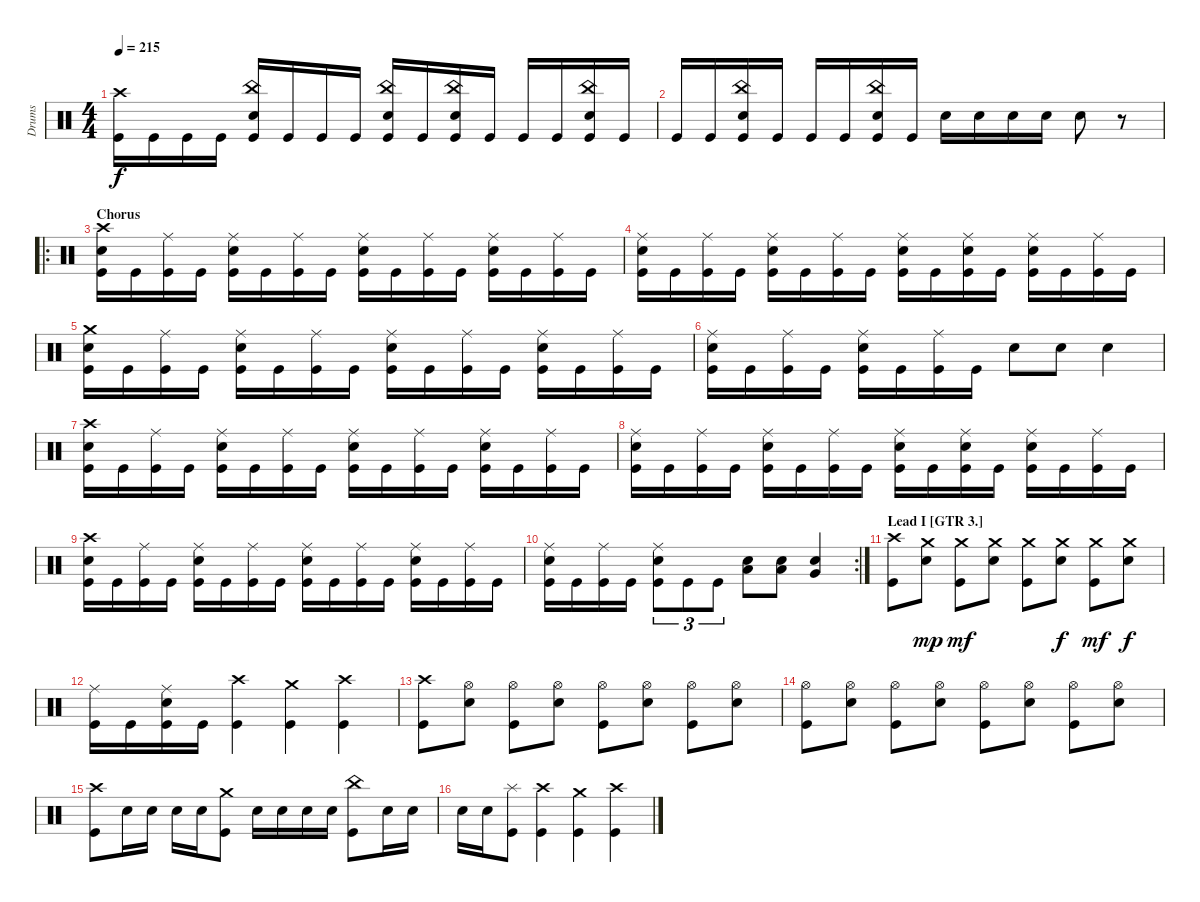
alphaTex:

\track ("Drums" "Drums") {instrument percussion}
\staff {score}
\articulation defaults
\ts (4 4)
\tempo 215
\clef neutral
\ks c
("Crash high (hit)" "Kick (hit)").16{dy f} "Kick (hit)".16 "Kick (hit)".16 "Kick (hit)".16 ("China (hit)" "Electric Snare (hit)" "Kick (hit)").16 "Kick (hit)".16 "Kick (hit)".16 "Kick (hit)".16 ("China (hit)" "Electric Snare (hit)" "Kick (hit)").16 "Kick (hit)".16 ("China (hit)" "Electric Snare (hit)" "Kick (hit)").16 "Kick (hit)".16 "Kick (hit)".16 "Kick (hit)".16 ("China (hit)" "Electric Snare (hit)" "Kick (hit)").16 "Kick (hit)".16 |
"Kick (hit)".16 "Kick (hit)".16 ("China (hit)" "Electric Snare (hit)" "Kick (hit)").16 "Kick (hit)".16 "Kick (hit)".16 "Kick (hit)".16 ("China (hit)" "Electric Snare (hit)" "Kick (hit)").16 "Kick (hit)".16 "Electric Snare (hit)".16 "Electric Snare (hit)".16 "Electric Snare (hit)".16 "Electric Snare (hit)".16 "Electric Snare (hit)".8 r.8 |
\ro
\section ("" "Chorus")
("Crash high (hit)" "Electric Snare (hit)" "Kick (hit)").16 "Kick (hit)".16 ("Ride (middle)" "Kick (hit)").16 "Kick (hit)".16 ("Ride (middle)" "Electric Snare (hit)" "Kick (hit)").16 "Kick (hit)".16 ("Ride (middle)" "Kick (hit)").16 "Kick (hit)".16 ("Ride (middle)" "Electric Snare (hit)" "Kick (hit)").16 "Kick (hit)".16 ("Ride (middle)" "Kick (hit)").16 "Kick (hit)".16 ("Ride (middle)" "Electric Snare (hit)" "Kick (hit)").16 "Kick (hit)".16 ("Ride (middle)" "Kick (hit)").16 "Kick (hit)".16 |
("Ride (middle)" "Electric Snare (hit)" "Kick (hit)").16 "Kick (hit)".16 ("Ride (middle)" "Kick (hit)").16 "Kick (hit)".16 ("Ride (middle)" "Electric Snare (hit)" "Kick (hit)").16 "Kick (hit)".16 ("Ride (middle)" "Kick (hit)").16 "Kick (hit)".16 ("Ride (middle)" "Electric Snare (hit)" "Kick (hit)").16 "Kick (hit)".16 ("Ride (middle)" "Electric Snare (hit)" "Kick (hit)").16 "Kick (hit)".16 ("Ride (middle)" "Electric Snare (hit)" "Kick (hit)").16 "Kick (hit)".16 ("Ride (middle)" "Kick (hit)").16 "Kick (hit)".16 |
("Crash medium (hit)" "Electric Snare (hit)" "Kick (hit)").16 "Kick (hit)".16 ("Ride (middle)" "Kick (hit)").16 "Kick (hit)".16 ("Ride (middle)" "Electric Snare (hit)" "Kick (hit)").16 "Kick (hit)".16 ("Ride (middle)" "Kick (hit)").16 "Kick (hit)".16 ("Ride (middle)" "Electric Snare (hit)" "Kick (hit)").16 "Kick (hit)".16 ("Ride (middle)" "Kick (hit)").16 "Kick (hit)".16 ("Ride (middle)" "Electric Snare (hit)" "Kick (hit)").16 "Kick (hit)".16 ("Ride (middle)" "Kick (hit)").16 "Kick (hit)".16 |
("Ride (middle)" "Electric Snare (hit)" "Kick (hit)").16 "Kick (hit)".16 ("Ride (middle)" "Kick (hit)").16 "Kick (hit)".16 ("Ride (middle)" "Electric Snare (hit)" "Kick (hit)").16 "Kick (hit)".16 ("Ride (middle)" "Kick (hit)").16 "Kick (hit)".16 "Electric Snare (hit)".8 "Electric Snare (hit)".8 "Electric Snare (hit)".4 |
("Crash high (hit)" "Electric Snare (hit)" "Kick (hit)").16 "Kick (hit)".16 ("Ride (middle)" "Kick (hit)").16 "Kick (hit)".16 ("Ride (middle)" "Electric Snare (hit)" "Kick (hit)").16 "Kick (hit)".16 ("Ride (middle)" "Kick (hit)").16 "Kick (hit)".16 ("Ride (middle)" "Electric Snare (hit)" "Kick (hit)").16 "Kick (hit)".16 ("Ride (middle)" "Kick (hit)").16 "Kick (hit)".16 ("Ride (middle)" "Electric Snare (hit)" "Kick (hit)").16 "Kick (hit)".16 ("Ride (middle)" "Kick (hit)").16 "Kick (hit)".16 |
("Ride (middle)" "Electric Snare (hit)" "Kick (hit)").16 "Kick (hit)".16 ("Ride (middle)" "Kick (hit)").16 "Kick (hit)".16 ("Ride (middle)" "Electric Snare (hit)" "Kick (hit)").16 "Kick (hit)".16 ("Ride (middle)" "Kick (hit)").16 "Kick (hit)".16 ("Ride (middle)" "Electric Snare (hit)" "Kick (hit)").16 "Kick (hit)".16 ("Ride (middle)" "Electric Snare (hit)" "Kick (hit)").16 "Kick (hit)".16 ("Ride (middle)" "Electric Snare (hit)" "Kick (hit)").16 "Kick (hit)".16 ("Ride (middle)" "Kick (hit)").16 "Kick (hit)".16 |
("Crash high (hit)" "Electric Snare (hit)" "Kick (hit)").16 "Kick (hit)".16 ("Ride (middle)" "Kick (hit)").16 "Kick (hit)".16 ("Ride (middle)" "Electric Snare (hit)" "Kick (hit)").16 "Kick (hit)".16 ("Ride (middle)" "Kick (hit)").16 "Kick (hit)".16 ("Ride (middle)" "Electric Snare (hit)" "Kick (hit)").16 "Kick (hit)".16 ("Ride (middle)" "Kick (hit)").16 "Kick (hit)".16 ("Ride (middle)" "Electric Snare (hit)" "Kick (hit)").16 "Kick (hit)".16 ("Ride (middle)" "Kick (hit)").16 "Kick (hit)".16 |
\rc 2
("Ride (middle)" "Electric Snare (hit)" "Kick (hit)").16 "Kick (hit)".16 ("Ride (middle)" "Kick (hit)").16 "Kick (hit)".16 ("Ride (middle)" "Electric Snare (hit)" "Kick (hit)").8{tu (3 2)} "Kick (hit)".8{tu (3 2)} "Kick (hit)".8{tu (3 2)} ("Low Tom (hit)" "Electric Snare (hit)").8 ("Low Tom (hit)" "Electric Snare (hit)").8 ("Very Low Tom (hit)" "Electric Snare (hit)").4 |
\section ("" "Lead I [GTR 3.]")
("Crash high (hit)" "Kick (hit)").8 ("Crash medium (hit)" "Electric Snare (hit)").8{dy mp} ("Crash medium (hit)" "Kick (hit)").8{dy mf} ("Crash medium (hit)" "Electric Snare (hit)").8 ("Crash medium (hit)" "Kick (hit)").8 ("Crash medium (hit)" "Electric Snare (hit)").8{dy f} ("Crash medium (hit)" "Kick (hit)").8{dy mf} ("Crash medium (hit)" "Electric Snare (hit)").8{dy f} |
("Ride (middle)" "Kick (hit)").16 "Kick (hit)".16 ("Ride (middle)" "Electric Snare (hit)" "Kick (hit)").16 "Kick (hit)".16 ("Crash high (hit)" "Kick (hit)").4 ("Crash medium (hit)" "Kick (hit)").4 ("Crash high (hit)" "Kick (hit)").4 |
("Crash high (hit)" "Kick (hit)").8 ("Hi-Hat (open)" "Electric Snare (hit)").8 ("Hi-Hat (open)" "Kick (hit)").8 ("Hi-Hat (open)" "Electric Snare (hit)").8 ("Hi-Hat (open)" "Kick (hit)").8 ("Hi-Hat (open)" "Electric Snare (hit)").8 ("Hi-Hat (open)" "Kick (hit)").8 ("Hi-Hat (open)" "Electric Snare (hit)").8 |
("Hi-Hat (open)" "Kick (hit)").8 ("Hi-Hat (open)" "Electric Snare (hit)").8 ("Hi-Hat (open)" "Kick (hit)").8 ("Hi-Hat (open)" "Electric Snare (hit)").8 ("Hi-Hat (open)" "Kick (hit)").8 ("Hi-Hat (open)" "Electric Snare (hit)").8 ("Hi-Hat (open)" "Kick (hit)").8 ("Hi-Hat (open)" "Electric Snare (hit)").8 |
("Crash high (hit)" "Kick (hit)").8 "Electric Snare (hit)".16 "Electric Snare (hit)".16 "Electric Snare (hit)".16 "Electric Snare (hit)".16 ("Crash medium (hit)" "Kick (hit)").8 "Electric Snare (hit)".16 "Electric Snare (hit)".16 "Electric Snare (hit)".16 "Electric Snare (hit)".16 ("China (hit)" "Kick (hit)").8 "Electric Snare (hit)".16 "Electric Snare (hit)".16 |
"Electric Snare (hit)".16 "Electric Snare (hit)".16 ("Splash (hit)" "Kick (hit)").8 ("Crash high (hit)" "Kick (hit)").4 ("Crash medium (hit)" "Kick (hit)").4 ("Crash high (hit)" "Kick (hit)").4
